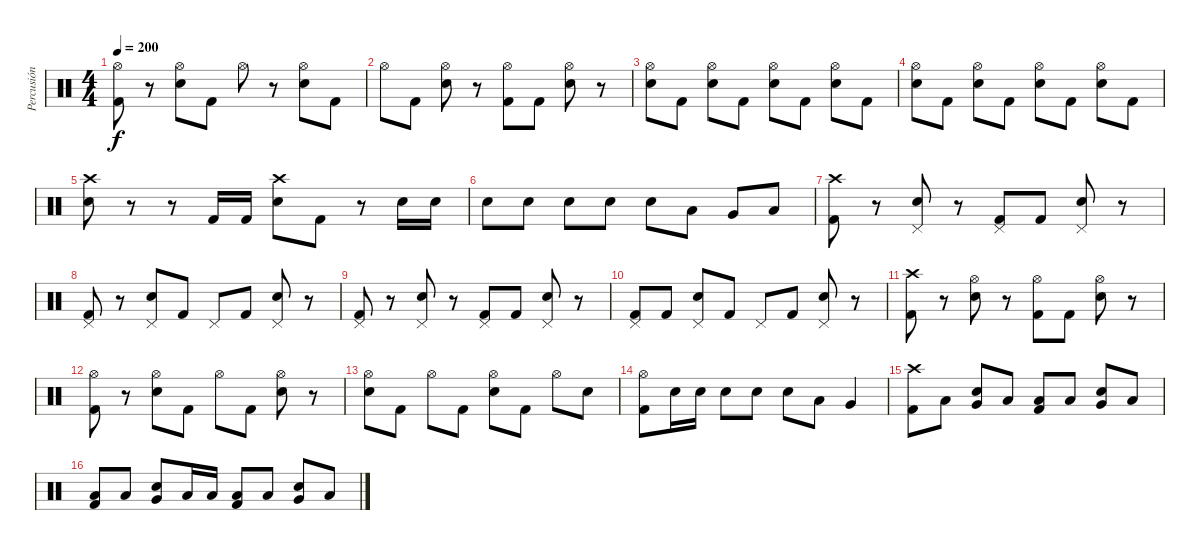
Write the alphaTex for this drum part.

\track ("Percusión" "Percusión") {instrument percussion}
\staff {score}
\articulation defaults
\ts (4 4)
\tempo 200
\clef neutral
\ks c
("Kick (hit) 2" "Hi-Hat (open)").8{dy f} r.8 ("Snare (hit) 2" "Hi-Hat (open)").8 "Kick (hit) 2".8 "Hi-Hat (open)".8 r.8 ("Snare (hit) 2" "Hi-Hat (open)").8 "Kick (hit) 2".8 |
"Hi-Hat (open)".8 "Kick (hit) 2".8 ("Snare (hit) 2" "Hi-Hat (open)").8 r.8 ("Kick (hit) 2" "Hi-Hat (open)").8 "Kick (hit) 2".8 ("Snare (hit) 2" "Hi-Hat (open)").8 r.8 |
("Snare (hit) 2" "Hi-Hat (open)").8 "Kick (hit) 2".8 ("Snare (hit) 2" "Hi-Hat (open)").8 "Kick (hit) 2".8 ("Snare (hit) 2" "Hi-Hat (open)").8 "Kick (hit) 2".8 ("Snare (hit) 2" "Hi-Hat (open)").8 "Kick (hit) 2".8 |
("Snare (hit) 2" "Hi-Hat (open)").8 "Kick (hit) 2".8 ("Snare (hit) 2" "Hi-Hat (open)").8 "Kick (hit) 2".8 ("Snare (hit) 2" "Hi-Hat (open)").8 "Kick (hit) 2".8 ("Snare (hit) 2" "Hi-Hat (open)").8 "Kick (hit) 2".8 |
("Snare (hit) 2" "Crash high (hit)").8 r.8 r.8 "Kick (hit) 2".16 "Kick (hit) 2".16 ("Snare (hit) 2" "Crash high (hit)").8 "Kick (hit) 2".8 r.8 "Snare (hit) 2".16 "Snare (hit) 2".16 |
"Snare (hit) 2".8 "Snare (hit) 2".8 "Snare (hit) 2".8 "Snare (hit) 2".8 "Snare (hit) 2".8 "Low Tom (hit)".8 "Very Low Tom (hit)".8 "Low Floor Tom (hit)".8 |
("Kick (hit) 2" "Crash high (hit)").8 r.8 ("Snare (hit) 2" "Pedal Hi-Hat (hit)").8 r.8 ("Kick (hit) 2" "Pedal Hi-Hat (hit)").8 "Kick (hit) 2".8 ("Snare (hit) 2" "Pedal Hi-Hat (hit)").8 r.8 |
("Kick (hit) 2" "Pedal Hi-Hat (hit)").8 r.8 ("Snare (hit) 2" "Pedal Hi-Hat (hit)").8 "Kick (hit) 2".8 "Pedal Hi-Hat (hit)".8 "Kick (hit) 2".8 ("Snare (hit) 2" "Pedal Hi-Hat (hit)").8 r.8 |
("Kick (hit) 2" "Pedal Hi-Hat (hit)").8 r.8 ("Snare (hit) 2" "Pedal Hi-Hat (hit)").8 r.8 ("Kick (hit) 2" "Pedal Hi-Hat (hit)").8 "Kick (hit) 2".8 ("Snare (hit) 2" "Pedal Hi-Hat (hit)").8 r.8 |
("Kick (hit) 2" "Pedal Hi-Hat (hit)").8 "Kick (hit) 2".8 ("Snare (hit) 2" "Pedal Hi-Hat (hit)").8 "Kick (hit) 2".8 "Pedal Hi-Hat (hit)".8 "Kick (hit) 2".8 ("Snare (hit) 2" "Pedal Hi-Hat (hit)").8 r.8 |
("Kick (hit) 2" "Crash high (hit)").8 r.8 ("Snare (hit) 2" "Hi-Hat (open)").8 r.8 ("Kick (hit) 2" "Hi-Hat (open)").8 "Kick (hit) 2".8 ("Snare (hit) 2" "Hi-Hat (open)").8 r.8 |
("Kick (hit) 2" "Hi-Hat (open)").8 r.8 ("Snare (hit) 2" "Hi-Hat (open)").8 "Kick (hit) 2".8 "Hi-Hat (open)".8 "Kick (hit) 2".8 ("Snare (hit) 2" "Hi-Hat (open)").8 r.8 |
("Snare (hit) 2" "Hi-Hat (open)").8 "Kick (hit) 2".8 "Hi-Hat (open)".8 "Kick (hit) 2".8 ("Snare (hit) 2" "Hi-Hat (open)").8 "Kick (hit) 2".8 "Hi-Hat (open)".8 "Snare (hit) 2".8 |
("Kick (hit) 2" "Hi-Hat (open)").8 "Snare (hit) 2".16 "Snare (hit) 2".16 "Snare (hit) 2".8 "Snare (hit) 2".8 "Snare (hit) 2".8 "Low Tom (hit)".8 "Very Low Tom (hit)".4 |
("Kick (hit) 2" "Crash high (hit)").8 "Low Tom (hit)".8 ("Snare (hit) 2" "Very Low Tom (hit)").8 "Low Tom (hit)".8 ("Kick (hit) 2" "Low Tom (hit)").8 "Low Tom (hit)".8 ("Snare (hit) 2" "Very Low Tom (hit)").8 "Low Tom (hit)".8 |
("Kick (hit) 2" "Low Tom (hit)").8 "Low Tom (hit)".8 ("Snare (hit) 2" "Very Low Tom (hit)").8 "Low Tom (hit)".16 "Low Tom (hit)".16 ("Kick (hit) 2" "Low Tom (hit)").8 "Low Tom (hit)".8 ("Snare (hit) 2" "Very Low Tom (hit)").8 "Low Tom (hit)".8
